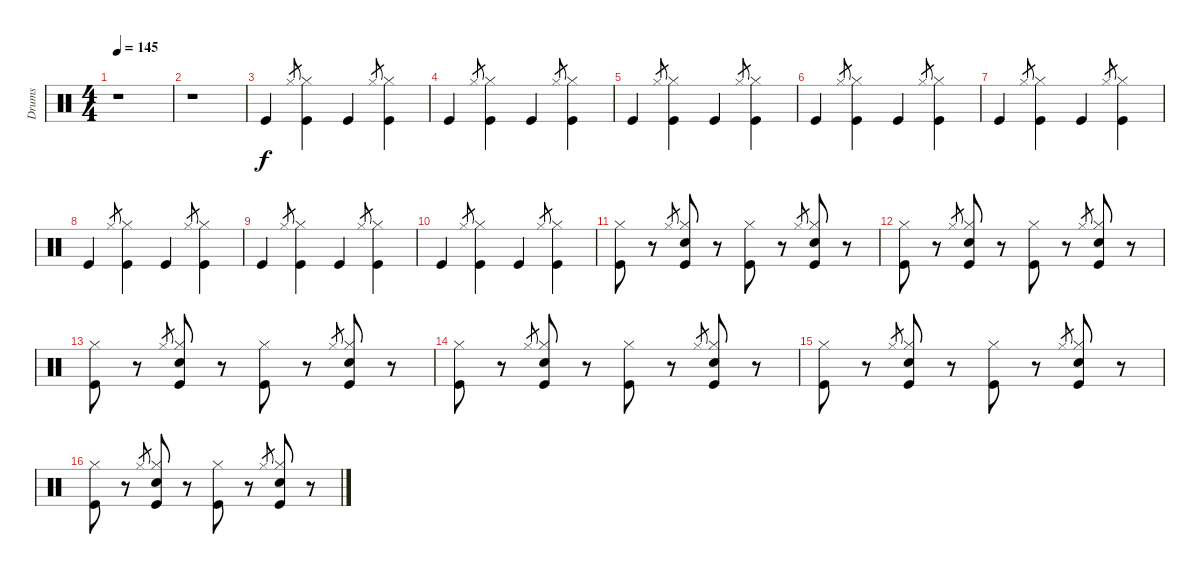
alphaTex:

\track ("Drums" "Drums") {instrument percussion}
\staff {score}
\articulation defaults
\ts (4 4)
\tempo 145
\clef neutral
\ks c
r.1{dy f} |
r.1 |
"Kick (hit)".4 "Hi-Hat (closed)".8{gr} ("Hi-Hat (closed)" "Kick (hit)").4 "Kick (hit)".4 "Hi-Hat (closed)".8{gr} ("Hi-Hat (closed)" "Kick (hit)").4 |
"Kick (hit)".4 "Hi-Hat (closed)".8{gr} ("Hi-Hat (closed)" "Kick (hit)").4 "Kick (hit)".4 "Hi-Hat (closed)".8{gr} ("Hi-Hat (closed)" "Kick (hit)").4 |
"Kick (hit)".4 "Hi-Hat (closed)".8{gr} ("Hi-Hat (closed)" "Kick (hit)").4 "Kick (hit)".4 "Hi-Hat (closed)".8{gr} ("Hi-Hat (closed)" "Kick (hit)").4 |
"Kick (hit)".4 "Hi-Hat (closed)".8{gr} ("Hi-Hat (closed)" "Kick (hit)").4 "Kick (hit)".4 "Hi-Hat (closed)".8{gr} ("Hi-Hat (closed)" "Kick (hit)").4 |
"Kick (hit)".4 "Hi-Hat (closed)".8{gr} ("Hi-Hat (closed)" "Kick (hit)").4 "Kick (hit)".4 "Hi-Hat (closed)".8{gr} ("Hi-Hat (closed)" "Kick (hit)").4 |
"Kick (hit)".4 "Hi-Hat (closed)".8{gr} ("Hi-Hat (closed)" "Kick (hit)").4 "Kick (hit)".4 "Hi-Hat (closed)".8{gr} ("Hi-Hat (closed)" "Kick (hit)").4 |
"Kick (hit)".4 "Hi-Hat (closed)".8{gr} ("Hi-Hat (closed)" "Kick (hit)").4 "Kick (hit)".4 "Hi-Hat (closed)".8{gr} ("Hi-Hat (closed)" "Kick (hit)").4 |
"Kick (hit)".4 "Hi-Hat (closed)".8{gr} ("Hi-Hat (closed)" "Kick (hit)").4 "Kick (hit)".4 "Hi-Hat (closed)".8{gr} ("Hi-Hat (closed)" "Kick (hit)").4 |
("Hi-Hat (closed)" "Kick (hit)").8 r.8 "Hi-Hat (closed)".8{gr} ("Hi-Hat (closed)" "Snare (hit) 2" "Kick (hit)").8 r.8 ("Hi-Hat (closed)" "Kick (hit)").8 r.8 "Hi-Hat (closed)".8{gr} ("Hi-Hat (closed)" "Snare (hit) 2" "Kick (hit)").8 r.8 |
("Hi-Hat (closed)" "Kick (hit)").8 r.8 "Hi-Hat (closed)".8{gr} ("Hi-Hat (closed)" "Snare (hit) 2" "Kick (hit)").8 r.8 ("Hi-Hat (closed)" "Kick (hit)").8 r.8 "Hi-Hat (closed)".8{gr} ("Hi-Hat (closed)" "Snare (hit) 2" "Kick (hit)").8 r.8 |
("Hi-Hat (closed)" "Kick (hit)").8 r.8 "Hi-Hat (closed)".8{gr} ("Hi-Hat (closed)" "Snare (hit) 2" "Kick (hit)").8 r.8 ("Hi-Hat (closed)" "Kick (hit)").8 r.8 "Hi-Hat (closed)".8{gr} ("Hi-Hat (closed)" "Snare (hit) 2" "Kick (hit)").8 r.8 |
("Hi-Hat (closed)" "Kick (hit)").8 r.8 "Hi-Hat (closed)".8{gr} ("Hi-Hat (closed)" "Snare (hit) 2" "Kick (hit)").8 r.8 ("Hi-Hat (closed)" "Kick (hit)").8 r.8 "Hi-Hat (closed)".8{gr} ("Hi-Hat (closed)" "Snare (hit) 2" "Kick (hit)").8 r.8 |
("Hi-Hat (closed)" "Kick (hit)").8 r.8 "Hi-Hat (closed)".8{gr} ("Hi-Hat (closed)" "Snare (hit) 2" "Kick (hit)").8 r.8 ("Hi-Hat (closed)" "Kick (hit)").8 r.8 "Hi-Hat (closed)".8{gr} ("Hi-Hat (closed)" "Snare (hit) 2" "Kick (hit)").8 r.8 |
("Hi-Hat (closed)" "Kick (hit)").8 r.8 "Hi-Hat (closed)".8{gr} ("Hi-Hat (closed)" "Snare (hit) 2" "Kick (hit)").8 r.8 ("Hi-Hat (closed)" "Kick (hit)").8 r.8 "Hi-Hat (closed)".8{gr} ("Hi-Hat (closed)" "Snare (hit) 2" "Kick (hit)").8 r.8
